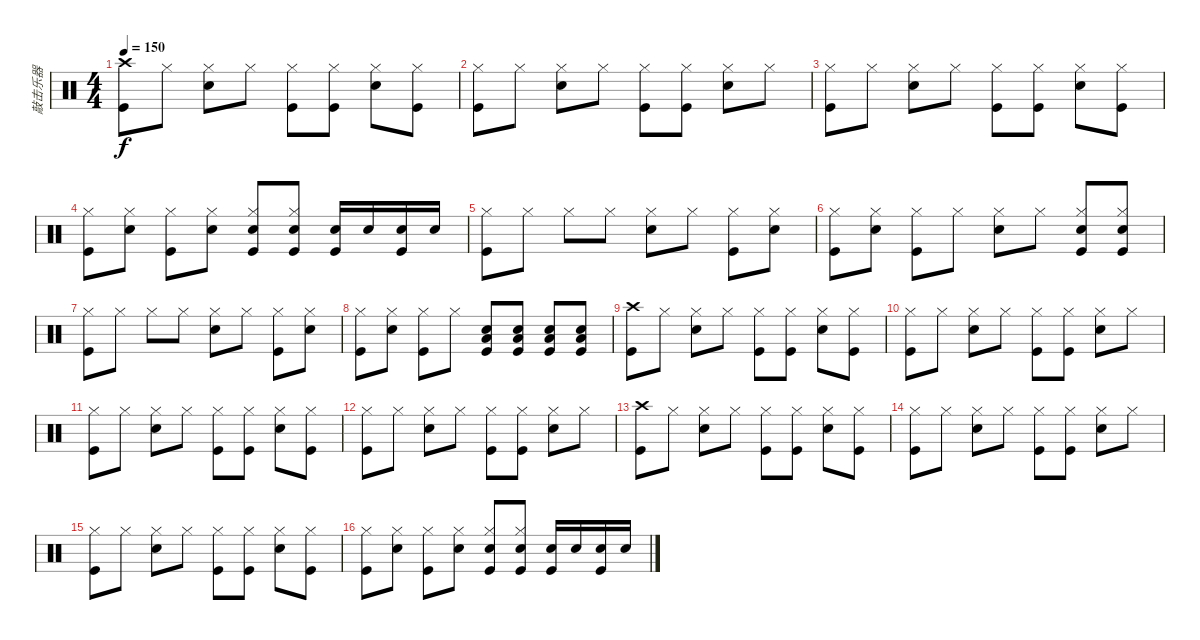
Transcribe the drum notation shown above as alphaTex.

\track ("敲击乐器" "敲击乐器") {instrument percussion}
\staff {score}
\articulation defaults
\ts (4 4)
\tempo 150
\clef neutral
\ks c
("Crash high (hit)" "Kick (hit)").8{dy f} "Hi-Hat (closed)".8 ("Hi-Hat (closed)" "Electric Snare (hit)").8 "Hi-Hat (closed)".8 ("Hi-Hat (closed)" "Kick (hit)").8 ("Hi-Hat (closed)" "Kick (hit)").8 ("Hi-Hat (closed)" "Electric Snare (hit)").8 ("Hi-Hat (closed)" "Kick (hit)").8 |
("Hi-Hat (closed)" "Kick (hit)").8 "Hi-Hat (closed)".8 ("Hi-Hat (closed)" "Electric Snare (hit)").8 "Hi-Hat (closed)".8 ("Hi-Hat (closed)" "Kick (hit)").8 ("Hi-Hat (closed)" "Kick (hit)").8 ("Hi-Hat (closed)" "Electric Snare (hit)").8 "Hi-Hat (closed)".8 |
("Hi-Hat (closed)" "Kick (hit)").8 "Hi-Hat (closed)".8 ("Hi-Hat (closed)" "Electric Snare (hit)").8 "Hi-Hat (closed)".8 ("Hi-Hat (closed)" "Kick (hit)").8 ("Hi-Hat (closed)" "Kick (hit)").8 ("Hi-Hat (closed)" "Electric Snare (hit)").8 ("Hi-Hat (closed)" "Kick (hit)").8 |
("Hi-Hat (closed)" "Kick (hit)").8 ("Hi-Hat (closed)" "Electric Snare (hit)").8 ("Hi-Hat (closed)" "Kick (hit)").8 ("Hi-Hat (closed)" "Electric Snare (hit)").8 ("Hi-Hat (closed)" "Electric Snare (hit)" "Kick (hit)").8 ("Hi-Hat (closed)" "Electric Snare (hit)" "Kick (hit)").8 ("Electric Snare (hit)" "Kick (hit)").16 "Electric Snare (hit)".16 ("Electric Snare (hit)" "Kick (hit)").16 "Electric Snare (hit)".16 |
("Hi-Hat (closed)" "Kick (hit)").8 "Hi-Hat (closed)".8 "Hi-Hat (closed)".8 "Hi-Hat (closed)".8 ("Hi-Hat (closed)" "Electric Snare (hit)").8 "Hi-Hat (closed)".8 ("Hi-Hat (closed)" "Kick (hit)").8 ("Hi-Hat (closed)" "Electric Snare (hit)").8 |
("Hi-Hat (closed)" "Kick (hit)").8 ("Hi-Hat (closed)" "Electric Snare (hit)").8 ("Hi-Hat (closed)" "Kick (hit)").8 "Hi-Hat (closed)".8 ("Hi-Hat (closed)" "Electric Snare (hit)").8 "Hi-Hat (closed)".8 ("Hi-Hat (closed)" "Electric Snare (hit)" "Kick (hit)").8 ("Hi-Hat (closed)" "Electric Snare (hit)" "Kick (hit)").8 |
("Hi-Hat (closed)" "Kick (hit)").8 "Hi-Hat (closed)".8 "Hi-Hat (closed)".8 "Hi-Hat (closed)".8 ("Hi-Hat (closed)" "Electric Snare (hit)").8 "Hi-Hat (closed)".8 ("Hi-Hat (closed)" "Kick (hit)").8 ("Hi-Hat (closed)" "Electric Snare (hit)").8 |
("Hi-Hat (closed)" "Kick (hit)").8 ("Hi-Hat (closed)" "Electric Snare (hit)").8 ("Hi-Hat (closed)" "Kick (hit)").8 "Hi-Hat (closed)".8 ("Low Floor Tom (hit)" "Electric Snare (hit)" "Kick (hit)").8 ("Low Floor Tom (hit)" "Electric Snare (hit)" "Kick (hit)").8 ("Low Floor Tom (hit)" "Electric Snare (hit)" "Kick (hit)").8 ("Low Floor Tom (hit)" "Electric Snare (hit)" "Kick (hit)").8 |
("Crash high (hit)" "Kick (hit)").8 "Hi-Hat (closed)".8 ("Hi-Hat (closed)" "Electric Snare (hit)").8 "Hi-Hat (closed)".8 ("Hi-Hat (closed)" "Kick (hit)").8 ("Hi-Hat (closed)" "Kick (hit)").8 ("Hi-Hat (closed)" "Electric Snare (hit)").8 ("Hi-Hat (closed)" "Kick (hit)").8 |
("Hi-Hat (closed)" "Kick (hit)").8 "Hi-Hat (closed)".8 ("Hi-Hat (closed)" "Electric Snare (hit)").8 "Hi-Hat (closed)".8 ("Hi-Hat (closed)" "Kick (hit)").8 ("Hi-Hat (closed)" "Kick (hit)").8 ("Hi-Hat (closed)" "Electric Snare (hit)").8 "Hi-Hat (closed)".8 |
("Hi-Hat (closed)" "Kick (hit)").8 "Hi-Hat (closed)".8 ("Hi-Hat (closed)" "Electric Snare (hit)").8 "Hi-Hat (closed)".8 ("Hi-Hat (closed)" "Kick (hit)").8 ("Hi-Hat (closed)" "Kick (hit)").8 ("Hi-Hat (closed)" "Electric Snare (hit)").8 ("Hi-Hat (closed)" "Kick (hit)").8 |
("Hi-Hat (closed)" "Kick (hit)").8 "Hi-Hat (closed)".8 ("Hi-Hat (closed)" "Electric Snare (hit)").8 "Hi-Hat (closed)".8 ("Hi-Hat (closed)" "Kick (hit)").8 ("Hi-Hat (closed)" "Kick (hit)").8 ("Hi-Hat (closed)" "Electric Snare (hit)").8 "Hi-Hat (closed)".8 |
("Crash high (hit)" "Kick (hit)").8 "Hi-Hat (closed)".8 ("Hi-Hat (closed)" "Electric Snare (hit)").8 "Hi-Hat (closed)".8 ("Hi-Hat (closed)" "Kick (hit)").8 ("Hi-Hat (closed)" "Kick (hit)").8 ("Hi-Hat (closed)" "Electric Snare (hit)").8 ("Hi-Hat (closed)" "Kick (hit)").8 |
("Hi-Hat (closed)" "Kick (hit)").8 "Hi-Hat (closed)".8 ("Hi-Hat (closed)" "Electric Snare (hit)").8 "Hi-Hat (closed)".8 ("Hi-Hat (closed)" "Kick (hit)").8 ("Hi-Hat (closed)" "Kick (hit)").8 ("Hi-Hat (closed)" "Electric Snare (hit)").8 "Hi-Hat (closed)".8 |
("Hi-Hat (closed)" "Kick (hit)").8 "Hi-Hat (closed)".8 ("Hi-Hat (closed)" "Electric Snare (hit)").8 "Hi-Hat (closed)".8 ("Hi-Hat (closed)" "Kick (hit)").8 ("Hi-Hat (closed)" "Kick (hit)").8 ("Hi-Hat (closed)" "Electric Snare (hit)").8 ("Hi-Hat (closed)" "Kick (hit)").8 |
("Hi-Hat (closed)" "Kick (hit)").8 ("Hi-Hat (closed)" "Electric Snare (hit)").8 ("Hi-Hat (closed)" "Kick (hit)").8 ("Hi-Hat (closed)" "Electric Snare (hit)").8 ("Hi-Hat (closed)" "Electric Snare (hit)" "Kick (hit)").8 ("Hi-Hat (closed)" "Electric Snare (hit)" "Kick (hit)").8 ("Electric Snare (hit)" "Kick (hit)").16 "Electric Snare (hit)".16 ("Electric Snare (hit)" "Kick (hit)").16 "Electric Snare (hit)".16
